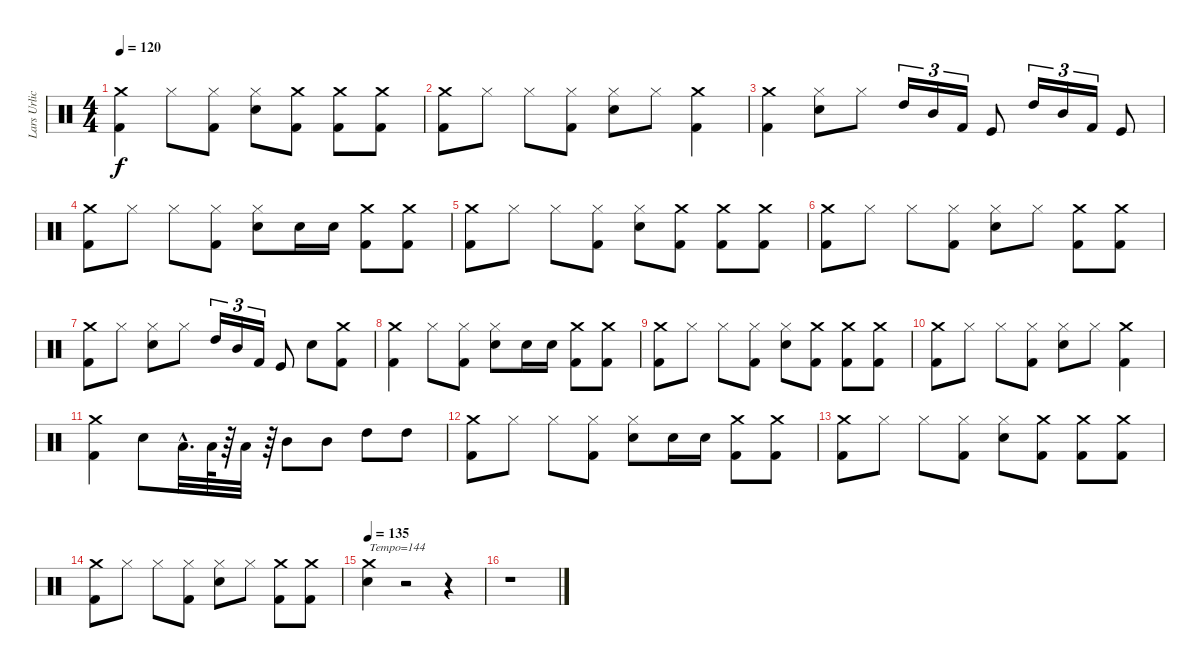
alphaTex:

\track ("Lars Urlich (drums)" "Lars Urlic") {instrument percussion}
\staff {score}
\articulation defaults
\ts (4 4)
\tempo 120
\clef neutral
\ks c
("Kick (hit) 2" "Crash medium (hit)").4{dy f} "Hi-Hat (closed)".8 ("Kick (hit) 2" "Hi-Hat (closed)").8 ("Hi-Hat (closed)" "Snare (hit) 2").8 ("Kick (hit) 2" "Crash medium (hit)").8 ("Kick (hit) 2" "Crash medium (hit)").8 ("Kick (hit) 2" "Crash medium (hit)").8 |
("Kick (hit) 2" "Crash medium (hit)").8 "Hi-Hat (closed)".8 "Hi-Hat (closed)".8 ("Kick (hit) 2" "Hi-Hat (closed)").8 ("Snare (hit) 2" "Hi-Hat (closed)").8 "Hi-Hat (closed)".8 ("Kick (hit) 2" "Crash medium (hit)").4 |
("Kick (hit) 2" "Crash medium (hit)").4 ("Hi-Hat (closed)" "Snare (hit) 2").8 "Hi-Hat (closed)".8 "High Tom (hit)".16{tu (3 2)} "Mid Tom (hit)".16{tu (3 2)} "Kick (hit) 2".16{tu (3 2)} "Kick (hit)".8 "High Tom (hit)".16{tu (3 2)} "Mid Tom (hit)".16{tu (3 2)} "Kick (hit) 2".16{tu (3 2)} "Kick (hit)".8 |
("Kick (hit) 2" "Crash medium (hit)").8 "Hi-Hat (closed)".8 "Hi-Hat (closed)".8 ("Kick (hit) 2" "Hi-Hat (closed)").8 ("Snare (hit) 2" "Hi-Hat (closed)").8 "Snare (hit) 2".16 "Snare (hit) 2".16 ("Kick (hit) 2" "Crash medium (hit)").8 ("Kick (hit) 2" "Crash medium (hit)").8 |
("Kick (hit) 2" "Crash medium (hit)").8 "Hi-Hat (closed)".8 "Hi-Hat (closed)".8 ("Kick (hit) 2" "Hi-Hat (closed)").8 ("Snare (hit) 2" "Hi-Hat (closed)").8 ("Kick (hit) 2" "Crash medium (hit)").8 ("Kick (hit) 2" "Crash medium (hit)").8 ("Kick (hit) 2" "Crash medium (hit)").8 |
("Kick (hit) 2" "Crash medium (hit)").8 "Hi-Hat (closed)".8 "Hi-Hat (closed)".8 ("Kick (hit) 2" "Hi-Hat (closed)").8 ("Snare (hit) 2" "Hi-Hat (closed)").8 "Hi-Hat (closed)".8 ("Kick (hit) 2" "Crash medium (hit)").8 ("Kick (hit) 2" "Crash medium (hit)").8 |
("Kick (hit) 2" "Crash medium (hit)").8 "Hi-Hat (closed)".8 ("Hi-Hat (closed)" "Snare (hit) 2").8 "Hi-Hat (closed)".8 "High Tom (hit)".16{tu (3 2)} "Mid Tom (hit)".16{tu (3 2)} "Kick (hit) 2".16{tu (3 2)} "Kick (hit)".8 "Snare (hit) 2".8 ("Kick (hit) 2" "Crash medium (hit)").8 |
("Kick (hit) 2" "Crash medium (hit)").4 "Hi-Hat (closed)".8 ("Kick (hit) 2" "Hi-Hat (closed)").8 ("Snare (hit) 2" "Hi-Hat (closed)").8 "Snare (hit) 2".16 "Snare (hit) 2".16 ("Crash medium (hit)" "Kick (hit) 2").8 ("Crash medium (hit)" "Kick (hit) 2").8 |
("Kick (hit) 2" "Crash medium (hit)").8 "Hi-Hat (closed)".8 "Hi-Hat (closed)".8 ("Kick (hit) 2" "Hi-Hat (closed)").8 ("Snare (hit) 2" "Hi-Hat (closed)").8 ("Kick (hit) 2" "Crash medium (hit)").8 ("Kick (hit) 2" "Crash medium (hit)").8 ("Kick (hit) 2" "Crash medium (hit)").8 |
("Kick (hit) 2" "Crash medium (hit)").8 "Hi-Hat (closed)".8 "Hi-Hat (closed)".8 ("Kick (hit) 2" "Hi-Hat (closed)").8 ("Snare (hit) 2" "Hi-Hat (closed)").8 "Hi-Hat (closed)".8 ("Crash medium (hit)" "Kick (hit) 2").4 |
("Kick (hit) 2" "Crash medium (hit)").4 "Snare (hit) 2".8 "Low Tom (hit)"{hac}.32{d} "Low Tom (hit)".64 r.64 "Low Tom (hit)".32 r.64 "Mid Tom (hit)".8 "Mid Tom (hit)".8 "High Tom (hit)".8 "High Tom (hit)".8 |
("Kick (hit) 2" "Crash medium (hit)").8 "Hi-Hat (closed)".8 "Hi-Hat (closed)".8 ("Kick (hit) 2" "Hi-Hat (closed)").8 ("Snare (hit) 2" "Hi-Hat (closed)").8 "Snare (hit) 2".16 "Snare (hit) 2".16 ("Kick (hit) 2" "Crash medium (hit)").8 ("Kick (hit) 2" "Crash medium (hit)").8 |
("Crash medium (hit)" "Kick (hit) 2").8 "Hi-Hat (closed)".8 "Hi-Hat (closed)".8 ("Kick (hit) 2" "Hi-Hat (closed)").8 ("Snare (hit) 2" "Hi-Hat (closed)").8 ("Kick (hit) 2" "Crash medium (hit)").8 ("Kick (hit) 2" "Crash medium (hit)").8 ("Kick (hit) 2" "Crash medium (hit)").8 |
("Crash medium (hit)" "Kick (hit) 2").8 "Hi-Hat (closed)".8 "Hi-Hat (closed)".8 ("Kick (hit) 2" "Hi-Hat (closed)").8 ("Snare (hit) 2" "Hi-Hat (closed)").8 "Hi-Hat (closed)".8 ("Kick (hit) 2" "Crash medium (hit)").8 ("Kick (hit) 2" "Crash medium (hit)").8 |
\tempo 135
("Snare (hit)" "Crash medium (hit)").4{txt "Tempo=144"} r.2 r.4 |
r.1
